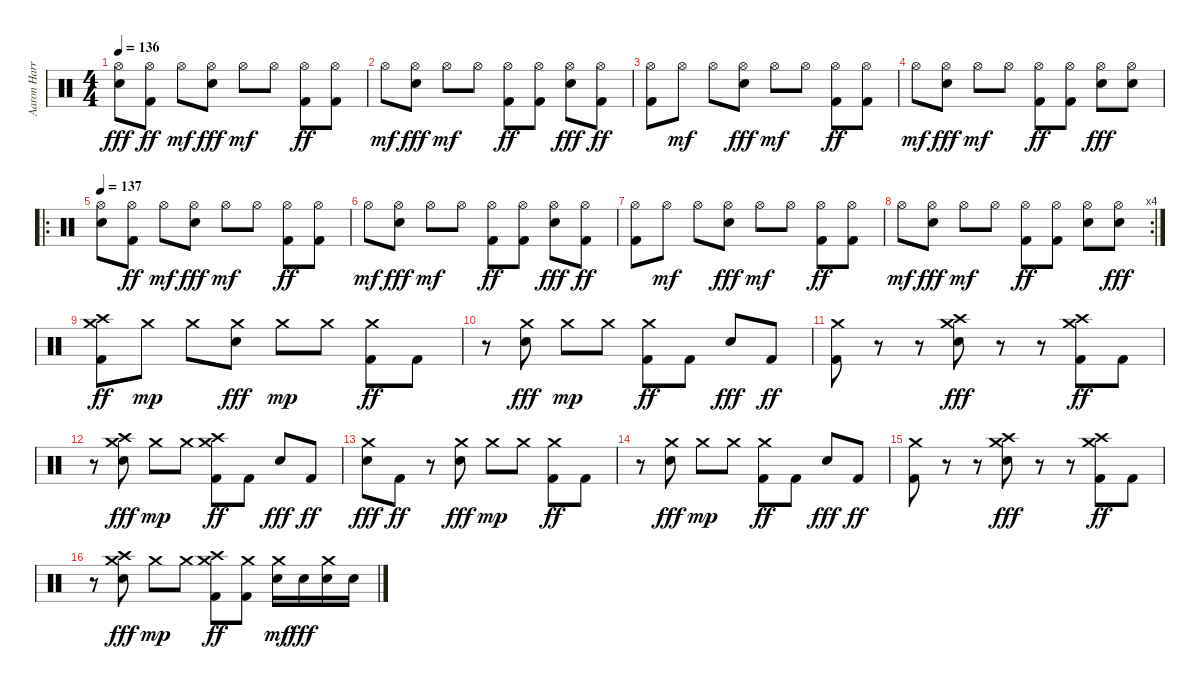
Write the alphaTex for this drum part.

\track ("Aaron Harris" "Aaron Harr") {instrument percussion}
\staff {score}
\articulation defaults
\ts (4 4)
\tempo 136
\clef neutral
\ks c
("Hi-Hat (open)" "Electric Snare (hit)").8{dy fff} ("Hi-Hat (open)" "Kick (hit) 2").8{dy ff} "Hi-Hat (open)".8{dy mf} ("Hi-Hat (open)" "Electric Snare (hit)").8{dy fff} "Hi-Hat (open)".8{dy mf} "Hi-Hat (open)".8 ("Hi-Hat (open)" "Kick (hit) 2").8{dy ff} ("Hi-Hat (open)" "Kick (hit) 2").8 |
"Hi-Hat (open)".8{dy mf} ("Hi-Hat (open)" "Electric Snare (hit)").8{dy fff} "Hi-Hat (open)".8{dy mf} "Hi-Hat (open)".8 ("Hi-Hat (open)" "Kick (hit) 2").8{dy ff} ("Hi-Hat (open)" "Kick (hit) 2").8 ("Hi-Hat (open)" "Electric Snare (hit)").8{dy fff} ("Hi-Hat (open)" "Kick (hit) 2").8{dy ff} |
("Hi-Hat (open)" "Kick (hit) 2").8 "Hi-Hat (open)".8{dy mf} "Hi-Hat (open)".8 ("Hi-Hat (open)" "Electric Snare (hit)").8{dy fff} "Hi-Hat (open)".8{dy mf} "Hi-Hat (open)".8 ("Hi-Hat (open)" "Kick (hit) 2").8{dy ff} ("Hi-Hat (open)" "Kick (hit) 2").8 |
"Hi-Hat (open)".8{dy mf} ("Hi-Hat (open)" "Electric Snare (hit)").8{dy fff} "Hi-Hat (open)".8{dy mf} "Hi-Hat (open)".8 ("Hi-Hat (open)" "Kick (hit) 2").8{dy ff} ("Hi-Hat (open)" "Kick (hit) 2").8 ("Hi-Hat (open)" "Electric Snare (hit)").8{dy fff} ("Hi-Hat (open)" "Electric Snare (hit)").8 |
\ro
\tempo 137
("Hi-Hat (open)" "Electric Snare (hit)").8 ("Hi-Hat (open)" "Kick (hit) 2").8{dy ff} "Hi-Hat (open)".8{dy mf} ("Hi-Hat (open)" "Electric Snare (hit)").8{dy fff} "Hi-Hat (open)".8{dy mf} "Hi-Hat (open)".8 ("Hi-Hat (open)" "Kick (hit) 2").8{dy ff} ("Hi-Hat (open)" "Kick (hit) 2").8 |
"Hi-Hat (open)".8{dy mf} ("Hi-Hat (open)" "Electric Snare (hit)").8{dy fff} "Hi-Hat (open)".8{dy mf} "Hi-Hat (open)".8 ("Hi-Hat (open)" "Kick (hit) 2").8{dy ff} ("Hi-Hat (open)" "Kick (hit) 2").8 ("Hi-Hat (open)" "Electric Snare (hit)").8{dy fff} ("Hi-Hat (open)" "Kick (hit) 2").8{dy ff} |
("Hi-Hat (open)" "Kick (hit) 2").8 "Hi-Hat (open)".8{dy mf} "Hi-Hat (open)".8 ("Hi-Hat (open)" "Electric Snare (hit)").8{dy fff} "Hi-Hat (open)".8{dy mf} "Hi-Hat (open)".8 ("Hi-Hat (open)" "Kick (hit) 2").8{dy ff} ("Hi-Hat (open)" "Kick (hit) 2").8 |
\rc 4 "Hi-Hat (open)".8{dy mf}
("Hi-Hat (open)" "Electric Snare (hit)").8{dy fff} "Hi-Hat (open)".8{dy mf} "Hi-Hat (open)".8 ("Hi-Hat (open)" "Kick (hit) 2").8{dy ff} ("Hi-Hat (open)" "Kick (hit) 2").8 ("Hi-Hat (open)" "Electric Snare (hit)").8 ("Hi-Hat (open)" "Electric Snare (hit)").8{dy fff} |
("Crash medium (hit)" "Crash high (hit)" "Kick (hit) 2").8{dy ff} "Crash medium (hit)".8{dy mp} "Crash medium (hit)".8 ("Crash medium (hit)" "Electric Snare (hit)").8{dy fff} "Crash medium (hit)".8{dy mp} "Crash medium (hit)".8 ("Crash medium (hit)" "Kick (hit) 2").8{dy ff} "Kick (hit) 2".8 |
r.8 ("Crash medium (hit)" "Electric Snare (hit)").8{dy fff} "Crash medium (hit)".8{dy mp} "Crash medium (hit)".8 ("Crash medium (hit)" "Kick (hit) 2").8{dy ff} "Kick (hit) 2".8 "Electric Snare (hit)".8{dy fff} "Kick (hit) 2".8{dy ff} |
("Crash medium (hit)" "Kick (hit) 2").8 r.8 r.8 ("Crash medium (hit)" "Crash high (hit)" "Electric Snare (hit)").8{dy fff} r.8 r.8 ("Crash medium (hit)" "Crash high (hit)" "Kick (hit) 2").8{dy ff} "Kick (hit) 2".8 |
r.8 ("Crash medium (hit)" "Crash high (hit)" "Electric Snare (hit)").8{dy fff} "Crash medium (hit)".8{dy mp} "Crash medium (hit)".8 ("Crash medium (hit)" "Crash high (hit)" "Kick (hit) 2").8{dy ff} "Kick (hit) 2".8 "Electric Snare (hit)".8{dy fff} "Kick (hit) 2".8{dy ff} |
("Crash medium (hit)" "Electric Snare (hit)").8{dy fff} "Kick (hit) 2".8{dy ff} r.8 ("Crash medium (hit)" "Electric Snare (hit)").8{dy fff} "Crash medium (hit)".8{dy mp} "Crash medium (hit)".8 ("Crash medium (hit)" "Kick (hit) 2").8{dy ff} "Kick (hit) 2".8 |
r.8 ("Crash medium (hit)" "Electric Snare (hit)").8{dy fff} "Crash medium (hit)".8{dy mp} "Crash medium (hit)".8 ("Crash medium (hit)" "Kick (hit) 2").8{dy ff} "Kick (hit) 2".8 "Electric Snare (hit)".8{dy fff} "Kick (hit) 2".8{dy ff} |
("Crash medium (hit)" "Kick (hit) 2").8 r.8 r.8 ("Crash medium (hit)" "Crash high (hit)" "Electric Snare (hit)").8{dy fff} r.8 r.8 ("Crash medium (hit)" "Crash high (hit)" "Kick (hit) 2").8{dy ff} "Kick (hit) 2".8 |
r.8 ("Crash medium (hit)" "Crash high (hit)" "Electric Snare (hit)").8{dy fff} "Crash medium (hit)".8{dy mp} "Crash medium (hit)".8 ("Crash medium (hit)" "Crash high (hit)" "Kick (hit) 2").8{dy ff} ("Crash medium (hit)" "Kick (hit) 2").8 ("Crash medium (hit)" "Electric Snare (hit)").16{dy mf} "Electric Snare (hit)".16{dy fff} ("Crash medium (hit)" "Electric Snare (hit)").16 "Electric Snare (hit)".16
